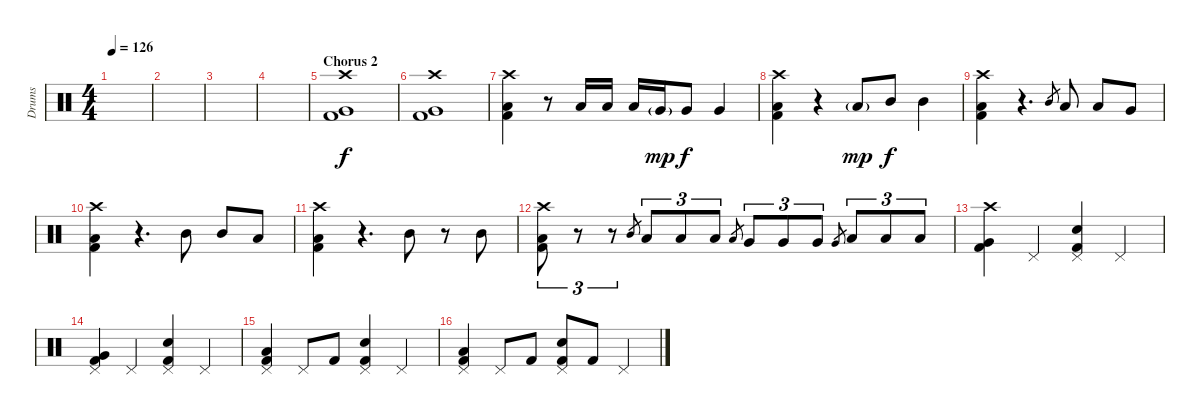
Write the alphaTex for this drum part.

\track ("Drums" "Drums") {instrument percussion}
\staff {score}
\articulation defaults
\ts (4 4)
\tempo 126
\clef neutral
\ks c
|
|
|
|
\section ("" "Chorus 2")
("Crash high (hit)" "Kick (hit) 2" "Very Low Tom (hit)").1 |
("Crash high (hit)" "Kick (hit) 2" "Very Low Tom (hit)").1 |
("Crash high (hit)" "Kick (hit) 2" "Low Floor Tom (hit)").4 r.8 "Low Tom (hit)".16 "Low Tom (hit)".16 "Low Tom (hit)".16 "Very Low Tom (hit)"{g}.16{dy mp} "Very Low Tom (hit)".8{dy f} "Very Low Tom (hit)".4 |
("Crash high (hit)" "Kick (hit) 2" "Low Floor Tom (hit)").4 r.4 "Low Tom (hit)"{g}.8{dy mp} "Mid Tom (hit)".8{dy f} "Mid Tom (hit)".4 |
("Crash high (hit)" "Kick (hit) 2" "Low Tom (hit)").4 r.4{d} "Mid Tom (hit)".8{gr} "Low Tom (hit)".8 "Low Tom (hit)".8 "Very Low Tom (hit)".8 |
("Crash high (hit)" "Kick (hit) 2" "Low Floor Tom (hit)").4 r.4{d} "Mid Tom (hit)".8 "Mid Tom (hit)".8 "Low Tom (hit)".8 |
("Crash high (hit)" "Kick (hit) 2" "Low Floor Tom (hit)").4 r.4{d} "Mid Tom (hit)".8 r.8 "Mid Tom (hit)".8 |
("Crash high (hit)" "Kick (hit) 2" "Low Floor Tom (hit)").8{tu (3 2)} r.8{tu (3 2)} r.8{tu (3 2)} "Mid Tom (hit)".8{gr} "Low Tom (hit)".8{tu (3 2)} "Low Tom (hit)".8{tu (3 2)} "Low Tom (hit)".8{tu (3 2)} "Low Tom (hit)".8{gr} "Very Low Tom (hit)".8{tu (3 2)} "Very Low Tom (hit)".8{tu (3 2)} "Very Low Tom (hit)".8{tu (3 2)} "Very Low Tom (hit)".8{gr} "Low Floor Tom (hit)".8{tu (3 2)} "Low Floor Tom (hit)".8{tu (3 2)} "Low Floor Tom (hit)".8{tu (3 2)} |
("Crash high (hit)" "Kick (hit) 2" "Very Low Tom (hit)").4 "Pedal Hi-Hat (hit)".4 ("Pedal Hi-Hat (hit)" "Kick (hit) 2" "Electric Snare (hit)").4 "Pedal Hi-Hat (hit)".4 |
("Pedal Hi-Hat (hit)" "Kick (hit) 2" "Very Low Tom (hit)").4 "Pedal Hi-Hat (hit)".4 ("Pedal Hi-Hat (hit)" "Kick (hit) 2" "Electric Snare (hit)").4 "Pedal Hi-Hat (hit)".4 |
("Pedal Hi-Hat (hit)" "Kick (hit) 2" "Low Floor Tom (hit)").4 "Pedal Hi-Hat (hit)".8 "Kick (hit) 2".8 ("Pedal Hi-Hat (hit)" "Kick (hit) 2" "Electric Snare (hit)").4 "Pedal Hi-Hat (hit)".4 |
("Pedal Hi-Hat (hit)" "Kick (hit) 2" "Low Floor Tom (hit)").4 "Pedal Hi-Hat (hit)".8 "Kick (hit) 2".8 ("Pedal Hi-Hat (hit)" "Kick (hit) 2" "Electric Snare (hit)").8 "Kick (hit) 2".8 "Pedal Hi-Hat (hit)".4
